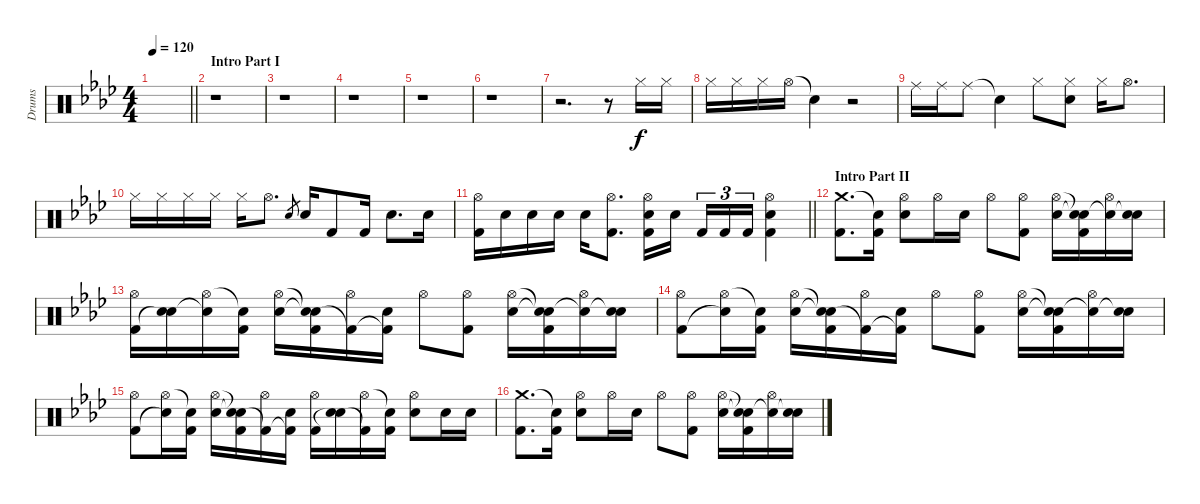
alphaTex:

\track ("Drums" "Drums") {instrument percussion}
\staff {score}
\articulation defaults
\ts (4 4)
\tempo 120
\clef neutral
\barLineRight lightlight
\ks fminor
|
\section ("" "Intro Part I")
r.1 |
r.1 |
r.1 |
r.1 |
r.1 |
r.2{d} r.8 "Hi-Hat (closed)".16 "Hi-Hat (closed)".16 |
"Hi-Hat (closed)".16 "Hi-Hat (closed)".16 "Hi-Hat (closed)".16 "Hi-Hat (open)".16 "Snare (hit)"{t}.4 r.2 |
"Ride (middle)".16 "Ride (middle)".16 "Ride (middle)".8 "Snare (hit)"{t}.4 "Hi-Hat (closed)".8 ("Hi-Hat (closed)" "Snare (hit)").8 "Hi-Hat (closed)".16 "Hi-Hat (open)".8{d} |
"Hi-Hat (closed)".16 "Hi-Hat (closed)".16 "Hi-Hat (closed)".16 "Hi-Hat (closed)".16 "Hi-Hat (closed)".16 "Hi-Hat (open)".8{d} "Electric Snare (hit)".8{gr} "Electric Snare (hit)".16 "Kick (hit) 2".8 "Kick (hit) 2".16 "Electric Snare (hit)".8{d} "Electric Snare (hit)".16 |
\barLineRight lightlight
("Hi-Hat (open)" "Kick (hit) 2").16 "Electric Snare (hit)".16 "Electric Snare (hit)".16 "Electric Snare (hit)".16 "Electric Snare (hit)".16 ("Hi-Hat (open)" "Kick (hit) 2").8{d} ("Hi-Hat (open)" "Electric Snare (hit)" "Kick (hit) 2").16 "Electric Snare (hit)".16{beam splitsecondary} "Kick (hit) 2".16{tu (3 2)} "Kick (hit) 2".16{tu (3 2)} "Kick (hit) 2".16{tu (3 2)} ("Hi-Hat (open)" "Electric Snare (hit)" "Kick (hit) 2").4 |
\section ("" "Intro Part II")
("Crash medium (hit)" "Kick (hit) 2").8{d} ("Snare (hit)"{t} "Kick (hit) 2").16 ("Hi-Hat (open)" "Electric Snare (hit)").8 "Hi-Hat (open)".16 "Electric Snare (hit)".16 "Hi-Hat (open)".8 ("Hi-Hat (open)" "Kick (hit) 2").8 ("Hi-Hat (open)" "Electric Snare (hit)").16 ("Snare (hit)"{t} "Snare (hit)"{t} "Kick (hit) 2").16 ("Hi-Hat (open)" "Snare (hit)"{t}).16 ("Electric Snare (hit)" "Snare (hit)"{t}).16 |
("Hi-Hat (open)" "Kick (hit) 2").16 ("Electric Snare (hit)" "Snare (hit)"{t}).16 ("Hi-Hat (open)" "Snare (hit)"{t}).16 ("Snare (hit)"{t} "Kick (hit) 2").16 ("Hi-Hat (open)" "Electric Snare (hit)").16 ("Snare (hit)"{t} "Snare (hit)"{t} "Kick (hit) 2").16 ("Hi-Hat (open)" "Kick (hit) 2"{t}).16 ("Electric Snare (hit)" "Kick (hit) 2"{t}).16 "Hi-Hat (open)".8 ("Hi-Hat (open)" "Kick (hit) 2").8 ("Hi-Hat (open)" "Electric Snare (hit)").16 ("Snare (hit)"{t} "Snare (hit)"{t} "Kick (hit) 2").16 ("Hi-Hat (open)" "Snare (hit)"{t}).16 ("Electric Snare (hit)" "Snare (hit)"{t}).16 |
("Hi-Hat (open)" "Kick (hit) 2").8 ("Hi-Hat (open)" "Snare (hit)"{t}).16 ("Snare (hit)"{t} "Kick (hit) 2").16 ("Hi-Hat (open)" "Electric Snare (hit)").16 ("Snare (hit)"{t} "Snare (hit)"{t} "Kick (hit) 2").16 ("Hi-Hat (open)" "Kick (hit) 2"{t}).16 ("Electric Snare (hit)" "Kick (hit) 2"{t}).16 "Hi-Hat (open)".8 ("Hi-Hat (open)" "Kick (hit) 2").8 ("Hi-Hat (open)" "Electric Snare (hit)").16 ("Snare (hit)"{t} "Snare (hit)"{t} "Kick (hit) 2").16 ("Hi-Hat (open)" "Snare (hit)"{t}).16 ("Electric Snare (hit)" "Snare (hit)"{t}).16 |
("Hi-Hat (open)" "Kick (hit) 2").8 ("Hi-Hat (open)" "Snare (hit)"{t}).16 ("Snare (hit)"{t} "Kick (hit) 2").16 ("Hi-Hat (open)" "Electric Snare (hit)").16 ("Snare (hit)"{t} "Snare (hit)"{t} "Kick (hit) 2").16 ("Hi-Hat (open)" "Kick (hit) 2"{t}).16 ("Electric Snare (hit)" "Kick (hit) 2"{t}).16 ("Hi-Hat (open)" "Kick (hit) 2").16 ("Electric Snare (hit)" "Snare (hit)"{t}).16 ("Hi-Hat (open)" "Kick (hit) 2"{t}).16 ("Snare (hit)"{t} "Kick (hit) 2").16 ("Hi-Hat (open)" "Electric Snare (hit)").8 "Electric Snare (hit)".16 "Electric Snare (hit)".16 |
("Crash medium (hit)" "Kick (hit) 2").8{d} ("Snare (hit)"{t} "Kick (hit) 2").16 ("Hi-Hat (open)" "Electric Snare (hit)").8 "Hi-Hat (open)".16 "Electric Snare (hit)".16 "Hi-Hat (open)".8 ("Hi-Hat (open)" "Kick (hit) 2").8 ("Hi-Hat (open)" "Electric Snare (hit)").16 ("Snare (hit)"{t} "Snare (hit)"{t} "Kick (hit) 2").16 ("Hi-Hat (open)" "Snare (hit)"{t}).16 ("Electric Snare (hit)" "Snare (hit)"{t}).16
